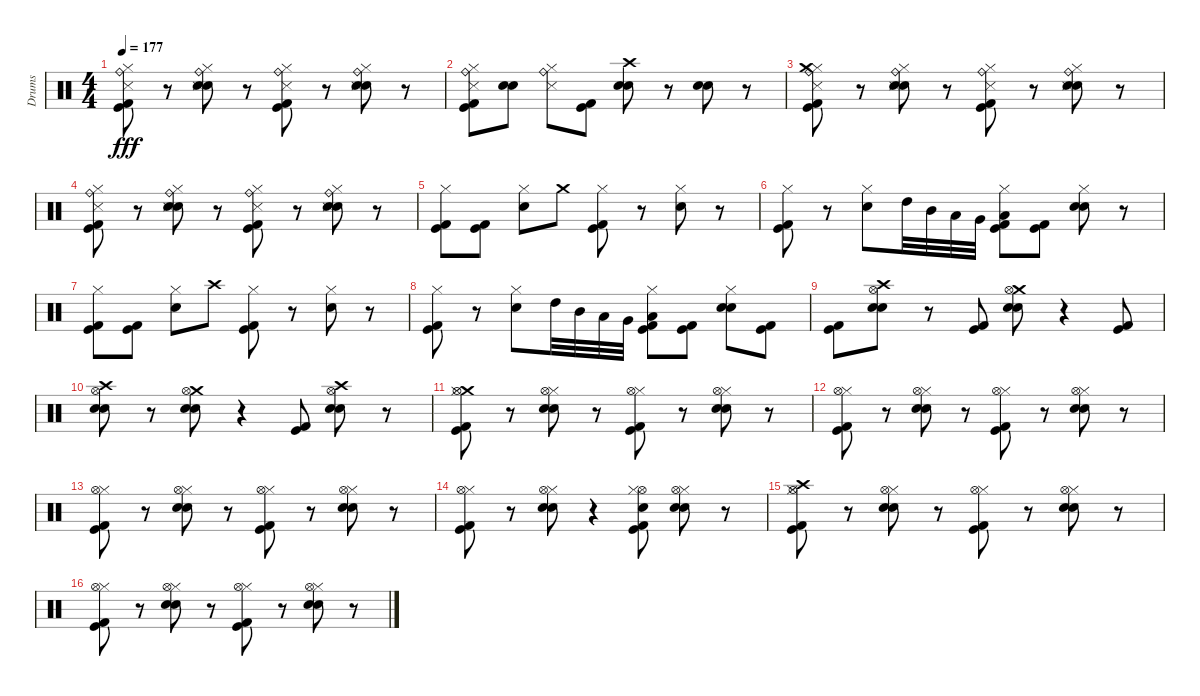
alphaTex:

\track ("Drums" "Drums") {instrument percussion}
\staff {score}
\articulation defaults
\ts (4 4)
\tempo 177
\clef neutral
\ks c
("Hi-Hat (closed)" "Kick (hit) 2" "Kick (hit)" "Ride (bell)" "Snare (side stick) 3").8{dy fff} r.8 ("Hi-Hat (closed)" "Electric Snare (hit)" "Snare (hit) 2" "Ride (bell)" "Snare (side stick) 3").8 r.8 ("Hi-Hat (closed)" "Kick (hit) 2" "Kick (hit)" "Ride (bell)" "Snare (side stick) 3").8 r.8 ("Hi-Hat (closed)" "Electric Snare (hit)" "Snare (hit) 2" "Ride (bell)" "Snare (side stick) 3").8 r.8 |
("Kick (hit) 2" "Kick (hit)" "Ride (bell)" "Hi-Hat (closed)" "Snare (side stick) 3").8 ("Electric Snare (hit)" "Snare (hit) 2").8 ("Ride (bell)" "Hi-Hat (closed)" "Snare (side stick) 3").8 ("Kick (hit) 2" "Kick (hit)").8 ("Electric Snare (hit)" "Snare (hit) 2" "Crash high (hit)").8 r.8 ("Electric Snare (hit)" "Snare (hit) 2").8 r.8 |
("Hi-Hat (closed)" "Kick (hit) 2" "Kick (hit)" "Snare (side stick) 3" "Ride (bell)" "Crash medium (hit)").8 r.8 ("Hi-Hat (closed)" "Electric Snare (hit)" "Snare (hit) 2" "Snare (side stick) 3" "Ride (bell)").8 r.8 ("Hi-Hat (closed)" "Kick (hit) 2" "Kick (hit)" "Snare (side stick) 3" "Ride (bell)").8 r.8 ("Hi-Hat (closed)" "Electric Snare (hit)" "Snare (hit) 2" "Snare (side stick) 3" "Ride (bell)").8 r.8 |
("Hi-Hat (closed)" "Kick (hit) 2" "Kick (hit)" "Snare (side stick) 3" "Ride (bell)").8 r.8 ("Hi-Hat (closed)" "Electric Snare (hit)" "Snare (hit) 2" "Snare (side stick) 3" "Ride (bell)").8 r.8 ("Hi-Hat (closed)" "Kick (hit) 2" "Kick (hit)" "Snare (side stick) 3" "Ride (bell)").8 r.8 ("Hi-Hat (closed)" "Electric Snare (hit)" "Snare (hit) 2" "Snare (side stick) 3" "Ride (bell)").8 r.8 |
("Hi-Hat (closed)" "Kick (hit) 2" "Kick (hit)").8 ("Kick (hit) 2" "Kick (hit)").8 ("Hi-Hat (closed)" "Electric Snare (hit)").8 "Crash medium (hit)".8 ("Hi-Hat (closed)" "Kick (hit) 2" "Kick (hit)").8 r.8 ("Hi-Hat (closed)" "Electric Snare (hit)").8 r.8 |
("Hi-Hat (closed)" "Kick (hit) 2" "Kick (hit)").8 r.8 ("Hi-Hat (closed)" "Electric Snare (hit)").8 "High Tom (hit)".32 "Mid Tom (hit)".32 "Low Tom (hit)".32 "Very Low Tom (hit)".32 ("Hi-Hat (closed)" "Kick (hit) 2" "Kick (hit)" "Low Floor Tom (hit)").8 ("Kick (hit) 2" "Kick (hit)").8 ("Hi-Hat (closed)" "Electric Snare (hit)" "Snare (hit) 2").8 r.8 |
("Hi-Hat (closed)" "Kick (hit) 2" "Kick (hit)").8 ("Kick (hit) 2" "Kick (hit)").8 ("Hi-Hat (closed)" "Electric Snare (hit)").8 "Crash high (hit)".8 ("Hi-Hat (closed)" "Kick (hit) 2" "Kick (hit)").8 r.8 ("Hi-Hat (closed)" "Electric Snare (hit)").8 r.8 |
("Hi-Hat (closed)" "Kick (hit) 2" "Kick (hit)").8 r.8 ("Hi-Hat (closed)" "Electric Snare (hit)").8 "High Tom (hit)".32 "Mid Tom (hit)".32 "Low Tom (hit)".32 "Very Low Tom (hit)".32 ("Hi-Hat (closed)" "Kick (hit) 2" "Kick (hit)" "Low Floor Tom (hit)").8 ("Kick (hit) 2" "Kick (hit)").8 ("Hi-Hat (closed)" "Electric Snare (hit)" "Snare (hit) 2").8 ("Kick (hit) 2" "Kick (hit)").8 |
("Kick (hit) 2" "Kick (hit)").8 ("Crash high (hit)" "Electric Snare (hit)" "Snare (hit) 2" "Hi-Hat (open)").8 r.8 ("Kick (hit) 2" "Kick (hit)").8 ("Crash medium (hit)" "Hi-Hat (open)" "Electric Snare (hit)" "Snare (hit) 2").8 r.4 ("Kick (hit) 2" "Kick (hit)").8 |
("Crash high (hit)" "Hi-Hat (open)" "Electric Snare (hit)" "Snare (hit) 2").8 r.8 ("Crash medium (hit)" "Hi-Hat (open)" "Electric Snare (hit)" "Snare (hit) 2").8 r.4 ("Kick (hit) 2" "Kick (hit)").8 ("Crash high (hit)" "Hi-Hat (open)" "Electric Snare (hit)" "Snare (hit) 2").8 r.8 |
("Crash medium (hit)" "Kick (hit) 2" "Kick (hit)" "Hi-Hat (closed)" "Hi-Hat (open)").8 r.8 ("Electric Snare (hit)" "Snare (hit) 2" "Hi-Hat (closed)" "Hi-Hat (open)").8 r.8 ("Kick (hit) 2" "Kick (hit)" "Hi-Hat (closed)" "Hi-Hat (open)").8 r.8 ("Electric Snare (hit)" "Snare (hit) 2" "Hi-Hat (closed)" "Hi-Hat (open)").8 r.8 |
("Kick (hit) 2" "Kick (hit)" "Hi-Hat (closed)" "Hi-Hat (open)").8 r.8 ("Electric Snare (hit)" "Snare (hit) 2" "Hi-Hat (closed)" "Hi-Hat (open)").8 r.8 ("Kick (hit) 2" "Kick (hit)" "Hi-Hat (closed)" "Hi-Hat (open)").8 r.8 ("Electric Snare (hit)" "Snare (hit) 2" "Hi-Hat (closed)" "Hi-Hat (open)").8 r.8 |
("Kick (hit) 2" "Kick (hit)" "Hi-Hat (closed)" "Hi-Hat (open)").8 r.8 ("Electric Snare (hit)" "Snare (hit) 2" "Hi-Hat (closed)" "Hi-Hat (open)").8 r.8 ("Kick (hit) 2" "Kick (hit)" "Hi-Hat (closed)" "Hi-Hat (open)").8 r.8 ("Electric Snare (hit)" "Snare (hit) 2" "Hi-Hat (closed)" "Hi-Hat (open)").8 r.8 |
("Kick (hit) 2" "Kick (hit)" "Hi-Hat (closed)" "Hi-Hat (open)").8 r.8 ("Hi-Hat (closed)" "Electric Snare (hit)" "Snare (hit) 2" "Hi-Hat (open)").8 r.4 ("Electric Snare (hit)" "Hi-Hat (open)" "Hi-Hat (closed)" "Kick (hit) 2" "Kick (hit)").8 ("Hi-Hat (closed)" "Electric Snare (hit)" "Snare (hit) 2" "Hi-Hat (open)").8 r.8 |
("Kick (hit) 2" "Kick (hit)" "Hi-Hat (closed)" "Hi-Hat (open)" "Crash high (hit)").8 r.8 ("Electric Snare (hit)" "Snare (hit) 2" "Hi-Hat (closed)" "Hi-Hat (open)").8 r.8 ("Kick (hit) 2" "Kick (hit)" "Hi-Hat (closed)" "Hi-Hat (open)").8 r.8 ("Electric Snare (hit)" "Snare (hit) 2" "Hi-Hat (closed)" "Hi-Hat (open)").8 r.8 |
("Kick (hit) 2" "Kick (hit)" "Hi-Hat (closed)" "Hi-Hat (open)").8 r.8 ("Electric Snare (hit)" "Snare (hit) 2" "Hi-Hat (closed)" "Hi-Hat (open)").8 r.8 ("Kick (hit) 2" "Kick (hit)" "Hi-Hat (closed)" "Hi-Hat (open)").8 r.8 ("Electric Snare (hit)" "Snare (hit) 2" "Hi-Hat (closed)" "Hi-Hat (open)").8 r.8
